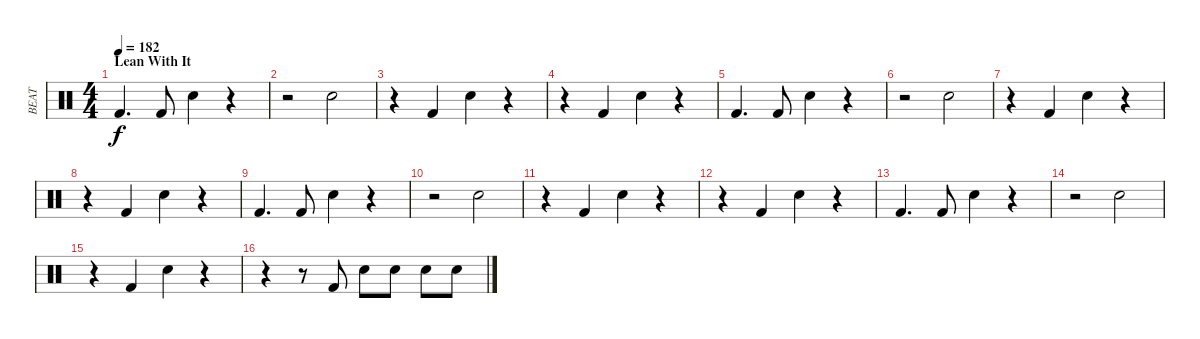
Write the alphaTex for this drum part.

\track ("BEAT" "BEAT") {instrument percussion}
\staff {score}
\articulation defaults
\ts (4 4)
\section ("" "Lean With It")
\tempo 182
\clef neutral
\ks c "Kick (hit) 2".4{d dy f} "Kick (hit) 2".8 "Hand Clap (hit)".4
r.4 |
r.2 "Hand Clap (hit)".2 |
r.4 "Kick (hit) 2".4 "Hand Clap (hit)".4 r.4 |
r.4 "Kick (hit) 2".4 "Hand Clap (hit)".4 r.4 |
"Kick (hit) 2".4{d} "Kick (hit) 2".8 "Hand Clap (hit)".4 r.4 |
r.2 "Hand Clap (hit)".2 |
r.4 "Kick (hit) 2".4 "Hand Clap (hit)".4 r.4 |
r.4 "Kick (hit) 2".4 "Hand Clap (hit)".4 r.4 |
"Kick (hit) 2".4{d} "Kick (hit) 2".8 "Hand Clap (hit)".4 r.4 |
r.2 "Hand Clap (hit)".2 |
r.4 "Kick (hit) 2".4 "Hand Clap (hit)".4 r.4 |
r.4 "Kick (hit) 2".4 "Hand Clap (hit)".4 r.4 |
"Kick (hit) 2".4{d} "Kick (hit) 2".8 "Hand Clap (hit)".4 r.4 |
r.2 "Hand Clap (hit)".2 |
r.4 "Kick (hit) 2".4 "Hand Clap (hit)".4 r.4 |
r.4 r.8 "Kick (hit) 2".8 "Electric Snare (hit)".8 "Electric Snare (hit)".8 "Electric Snare (hit)".8 "Electric Snare (hit)".8
